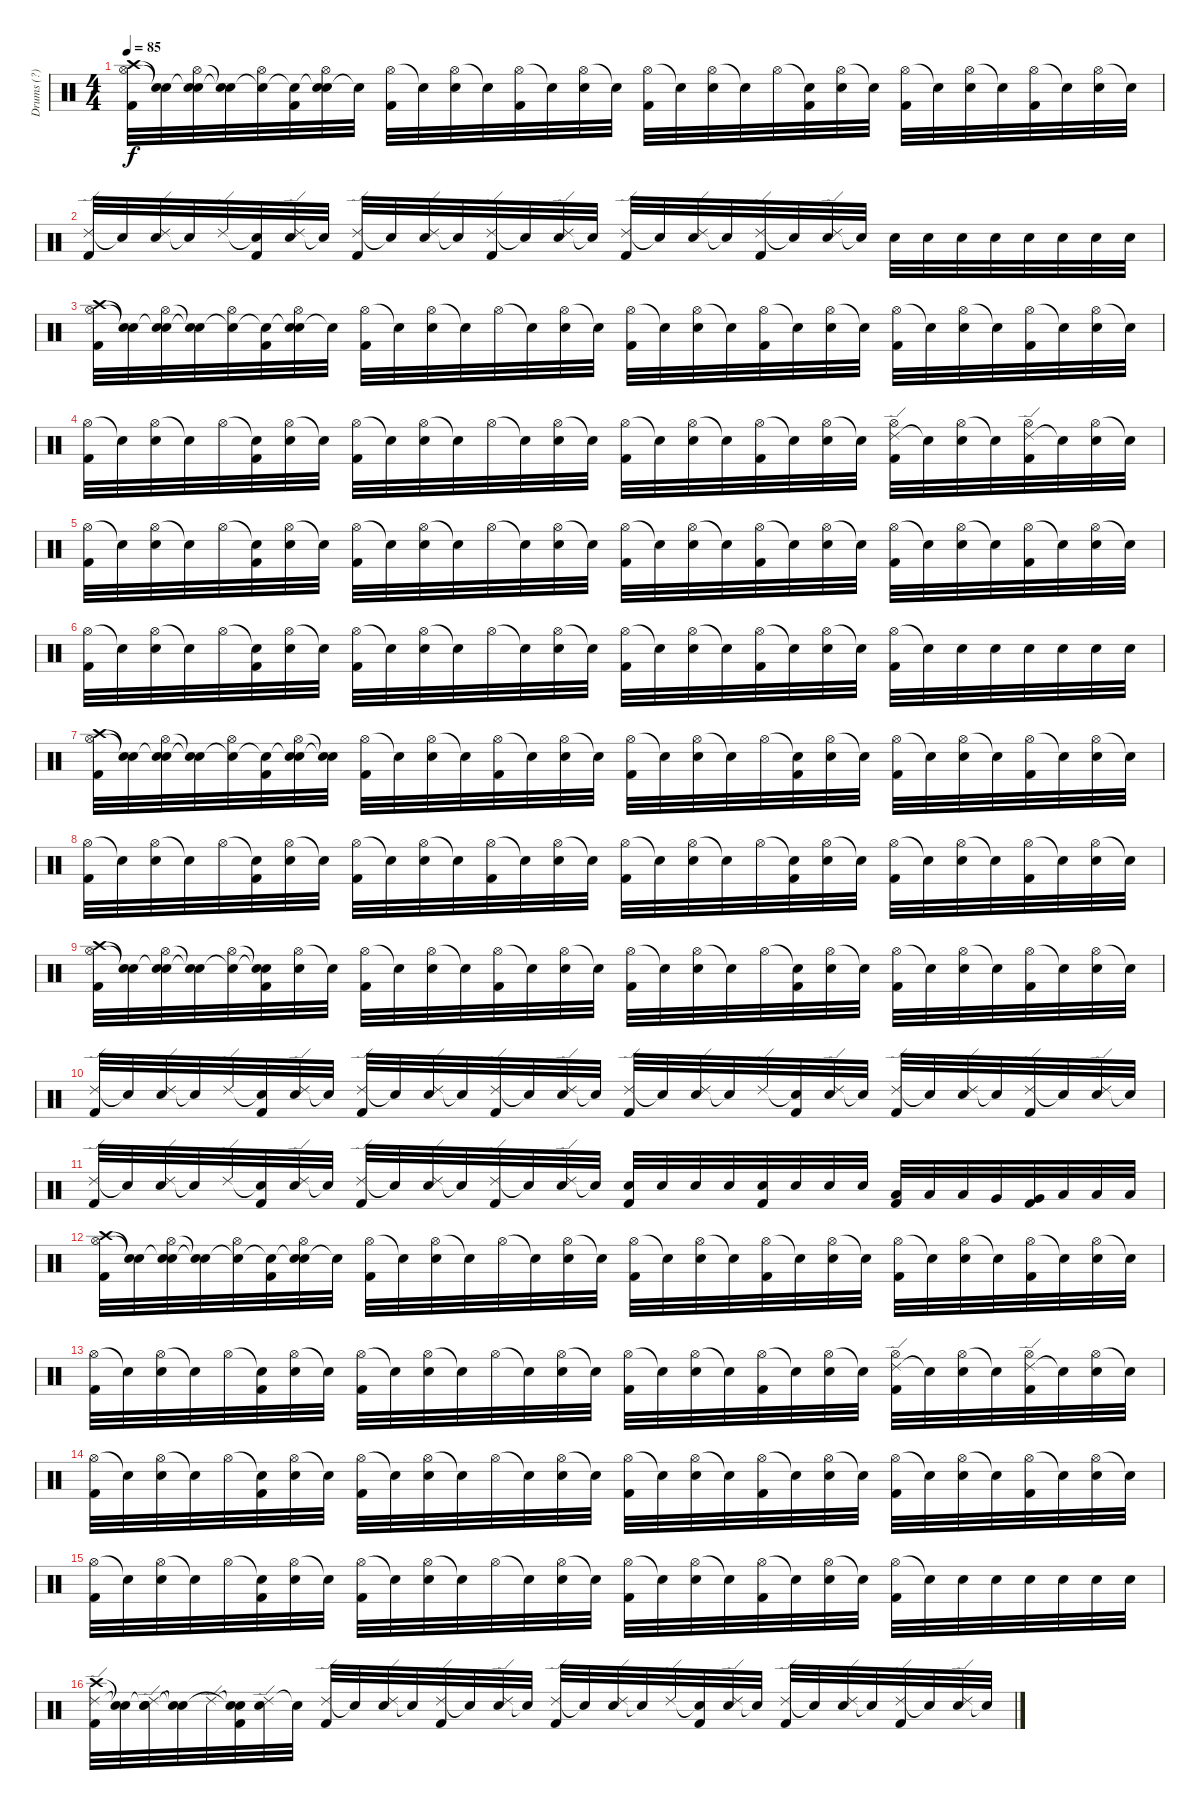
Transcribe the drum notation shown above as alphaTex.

\track ("Drums (?)" "Drums (?)") {instrument percussion}
\staff {score}
\articulation defaults
\ts (4 4)
\tempo 85
\clef neutral
\ks c
("Crash high (hit)" "Hi-Hat (open)" "Kick (hit) 2").32{dy f volume 14} ("Snare (hit)"{t} "Snare (hit)"{t}).32 ("Snare (hit)"{t} "Hi-Hat (open)" "Electric Snare (hit)").32 ("Snare (hit)"{t} "Snare (hit)"{t}).32 ("Snare (hit)"{t} "Hi-Hat (open)").32 ("Snare (hit)"{t} "Kick (hit) 2").32 ("Snare (hit)"{t} "Hi-Hat (open)" "Electric Snare (hit)").32 "Snare (hit)"{t}.32 ("Hi-Hat (open)" "Kick (hit) 2").32 "Snare (hit)"{t}.32 ("Hi-Hat (open)" "Electric Snare (hit)").32 "Snare (hit)"{t}.32 ("Hi-Hat (open)" "Kick (hit) 2").32 "Snare (hit)"{t}.32 ("Hi-Hat (open)" "Electric Snare (hit)").32 "Snare (hit)"{t}.32 ("Hi-Hat (open)" "Kick (hit) 2").32 "Snare (hit)"{t}.32 ("Hi-Hat (open)" "Electric Snare (hit)").32 "Snare (hit)"{t}.32 "Hi-Hat (open)".32 ("Snare (hit)"{t} "Kick (hit) 2").32 ("Hi-Hat (open)" "Electric Snare (hit)").32 "Snare (hit)"{t}.32 ("Hi-Hat (open)" "Kick (hit) 2").32 "Snare (hit)"{t}.32 ("Hi-Hat (open)" "Electric Snare (hit)").32 "Snare (hit)"{t}.32 ("Hi-Hat (open)" "Kick (hit) 2").32 "Snare (hit)"{t}.32 ("Hi-Hat (open)" "Electric Snare (hit)").32 "Snare (hit)"{t}.32 |
("Ride (edge) 2" "Kick (hit) 2").32 "Snare (hit)"{t}.32 ("Ride (edge) 2" "Electric Snare (hit)").32 "Snare (hit)"{t}.32 "Ride (edge) 2".32 ("Snare (hit)"{t} "Kick (hit) 2").32 ("Ride (edge) 2" "Electric Snare (hit)").32 "Snare (hit)"{t}.32 ("Ride (edge) 2" "Kick (hit) 2").32 "Snare (hit)"{t}.32 ("Ride (edge) 2" "Electric Snare (hit)").32 "Snare (hit)"{t}.32 ("Ride (edge) 2" "Kick (hit) 2").32 "Snare (hit)"{t}.32 ("Ride (edge) 2" "Electric Snare (hit)").32 "Snare (hit)"{t}.32 ("Ride (edge) 2" "Kick (hit) 2").32 "Snare (hit)"{t}.32 ("Ride (edge) 2" "Electric Snare (hit)").32 "Snare (hit)"{t}.32 ("Ride (edge) 2" "Kick (hit) 2").32 "Snare (hit)"{t}.32 ("Ride (edge) 2" "Electric Snare (hit)").32 "Snare (hit)"{t}.32 "Electric Snare (hit)".32 "Electric Snare (hit)".32 "Electric Snare (hit)".32 "Electric Snare (hit)".32 "Electric Snare (hit)".32 "Electric Snare (hit)".32 "Electric Snare (hit)".32 "Electric Snare (hit)".32 |
("Crash high (hit)" "Hi-Hat (open)" "Kick (hit) 2").32{volume 14} ("Snare (hit)"{t} "Snare (hit)"{t}).32 ("Snare (hit)"{t} "Hi-Hat (open)" "Electric Snare (hit)").32 ("Snare (hit)"{t} "Snare (hit)"{t}).32 ("Snare (hit)"{t} "Hi-Hat (open)").32 ("Snare (hit)"{t} "Kick (hit) 2").32 ("Snare (hit)"{t} "Hi-Hat (open)" "Electric Snare (hit)").32 "Snare (hit)"{t}.32 ("Hi-Hat (open)" "Kick (hit) 2").32 "Snare (hit)"{t}.32 ("Hi-Hat (open)" "Electric Snare (hit)").32 "Snare (hit)"{t}.32 "Hi-Hat (open)".32 "Snare (hit)"{t}.32 ("Hi-Hat (open)" "Electric Snare (hit)").32 "Snare (hit)"{t}.32 ("Hi-Hat (open)" "Kick (hit) 2").32 "Snare (hit)"{t}.32 ("Hi-Hat (open)" "Electric Snare (hit)").32 "Snare (hit)"{t}.32 ("Hi-Hat (open)" "Kick (hit) 2").32 "Snare (hit)"{t}.32 ("Hi-Hat (open)" "Electric Snare (hit)").32 "Snare (hit)"{t}.32 ("Hi-Hat (open)" "Kick (hit) 2").32 "Snare (hit)"{t}.32 ("Hi-Hat (open)" "Electric Snare (hit)").32 "Snare (hit)"{t}.32 ("Hi-Hat (open)" "Kick (hit) 2").32 "Snare (hit)"{t}.32 ("Hi-Hat (open)" "Electric Snare (hit)").32 "Snare (hit)"{t}.32 |
("Hi-Hat (open)" "Kick (hit) 2").32{volume 14} "Snare (hit)"{t}.32 ("Hi-Hat (open)" "Electric Snare (hit)").32 "Snare (hit)"{t}.32 "Hi-Hat (open)".32 ("Snare (hit)"{t} "Kick (hit) 2").32 ("Hi-Hat (open)" "Electric Snare (hit)").32 "Snare (hit)"{t}.32 ("Hi-Hat (open)" "Kick (hit) 2").32 "Snare (hit)"{t}.32 ("Hi-Hat (open)" "Electric Snare (hit)").32 "Snare (hit)"{t}.32 "Hi-Hat (open)".32 "Snare (hit)"{t}.32 ("Hi-Hat (open)" "Electric Snare (hit)").32 "Snare (hit)"{t}.32 ("Hi-Hat (open)" "Kick (hit) 2").32 "Snare (hit)"{t}.32 ("Hi-Hat (open)" "Electric Snare (hit)").32 "Snare (hit)"{t}.32 ("Hi-Hat (open)" "Kick (hit) 2").32 "Snare (hit)"{t}.32 ("Hi-Hat (open)" "Electric Snare (hit)").32 "Snare (hit)"{t}.32 ("Ride (edge) 2" "Hi-Hat (open)" "Kick (hit) 2").32 "Snare (hit)"{t}.32 ("Hi-Hat (open)" "Electric Snare (hit)").32 "Snare (hit)"{t}.32 ("Ride (edge) 2" "Hi-Hat (open)" "Kick (hit) 2").32 "Snare (hit)"{t}.32 ("Hi-Hat (open)" "Electric Snare (hit)").32 "Snare (hit)"{t}.32 |
("Hi-Hat (open)" "Kick (hit) 2").32{volume 14} "Snare (hit)"{t}.32 ("Hi-Hat (open)" "Electric Snare (hit)").32 "Snare (hit)"{t}.32 "Hi-Hat (open)".32 ("Snare (hit)"{t} "Kick (hit) 2").32 ("Hi-Hat (open)" "Electric Snare (hit)").32 "Snare (hit)"{t}.32 ("Hi-Hat (open)" "Kick (hit) 2").32 "Snare (hit)"{t}.32 ("Hi-Hat (open)" "Electric Snare (hit)").32 "Snare (hit)"{t}.32 "Hi-Hat (open)".32 "Snare (hit)"{t}.32 ("Hi-Hat (open)" "Electric Snare (hit)").32 "Snare (hit)"{t}.32 ("Hi-Hat (open)" "Kick (hit) 2").32 "Snare (hit)"{t}.32 ("Hi-Hat (open)" "Electric Snare (hit)").32 "Snare (hit)"{t}.32 ("Hi-Hat (open)" "Kick (hit) 2").32 "Snare (hit)"{t}.32 ("Hi-Hat (open)" "Electric Snare (hit)").32 "Snare (hit)"{t}.32 ("Hi-Hat (open)" "Kick (hit) 2").32 "Snare (hit)"{t}.32 ("Hi-Hat (open)" "Electric Snare (hit)").32 "Snare (hit)"{t}.32 ("Hi-Hat (open)" "Kick (hit) 2").32 "Snare (hit)"{t}.32 ("Hi-Hat (open)" "Electric Snare (hit)").32 "Snare (hit)"{t}.32 |
("Hi-Hat (open)" "Kick (hit) 2").32{volume 14} "Snare (hit)"{t}.32 ("Hi-Hat (open)" "Electric Snare (hit)").32 "Snare (hit)"{t}.32 "Hi-Hat (open)".32 ("Snare (hit)"{t} "Kick (hit) 2").32 ("Hi-Hat (open)" "Electric Snare (hit)").32 "Snare (hit)"{t}.32 ("Hi-Hat (open)" "Kick (hit) 2").32 "Snare (hit)"{t}.32 ("Hi-Hat (open)" "Electric Snare (hit)").32 "Snare (hit)"{t}.32 "Hi-Hat (open)".32 "Snare (hit)"{t}.32 ("Hi-Hat (open)" "Electric Snare (hit)").32 "Snare (hit)"{t}.32 ("Hi-Hat (open)" "Kick (hit) 2").32 "Snare (hit)"{t}.32 ("Hi-Hat (open)" "Electric Snare (hit)").32 "Snare (hit)"{t}.32 ("Hi-Hat (open)" "Kick (hit) 2").32 "Snare (hit)"{t}.32 ("Hi-Hat (open)" "Electric Snare (hit)").32 "Snare (hit)"{t}.32 ("Hi-Hat (open)" "Kick (hit) 2").32 "Snare (hit)"{t}.32 "Electric Snare (hit)".32 "Electric Snare (hit)".32 "Electric Snare (hit)".32 "Electric Snare (hit)".32 "Electric Snare (hit)".32 "Electric Snare (hit)".32 |
("Crash high (hit)" "Hi-Hat (open)" "Kick (hit) 2").32 ("Snare (hit)"{t} "Snare (hit)"{t}).32 ("Snare (hit)"{t} "Hi-Hat (open)" "Electric Snare (hit)").32 ("Snare (hit)"{t} "Snare (hit)"{t}).32 ("Snare (hit)"{t} "Hi-Hat (open)").32 ("Snare (hit)"{t} "Kick (hit) 2").32 ("Snare (hit)"{t} "Hi-Hat (open)" "Electric Snare (hit)").32 ("Snare (hit)"{t} "Snare (hit)"{t}).32 ("Hi-Hat (open)" "Kick (hit) 2").32 "Snare (hit)"{t}.32 ("Hi-Hat (open)" "Electric Snare (hit)").32 "Snare (hit)"{t}.32 ("Hi-Hat (open)" "Kick (hit) 2").32 "Snare (hit)"{t}.32 ("Hi-Hat (open)" "Electric Snare (hit)").32 "Snare (hit)"{t}.32 ("Hi-Hat (open)" "Kick (hit) 2").32 "Snare (hit)"{t}.32 ("Hi-Hat (open)" "Electric Snare (hit)").32 "Snare (hit)"{t}.32 "Hi-Hat (open)".32 ("Snare (hit)"{t} "Kick (hit) 2").32 ("Hi-Hat (open)" "Electric Snare (hit)").32 "Snare (hit)"{t}.32 ("Hi-Hat (open)" "Kick (hit) 2").32 "Snare (hit)"{t}.32 ("Hi-Hat (open)" "Electric Snare (hit)").32 "Snare (hit)"{t}.32 ("Hi-Hat (open)" "Kick (hit) 2").32 "Snare (hit)"{t}.32 ("Hi-Hat (open)" "Electric Snare (hit)").32 "Snare (hit)"{t}.32 |
("Hi-Hat (open)" "Kick (hit) 2").32 "Snare (hit)"{t}.32 ("Hi-Hat (open)" "Electric Snare (hit)").32 "Snare (hit)"{t}.32 "Hi-Hat (open)".32 ("Snare (hit)"{t} "Kick (hit) 2").32 ("Hi-Hat (open)" "Electric Snare (hit)").32 "Snare (hit)"{t}.32 ("Hi-Hat (open)" "Kick (hit) 2").32 "Snare (hit)"{t}.32 ("Hi-Hat (open)" "Electric Snare (hit)").32 "Snare (hit)"{t}.32 ("Hi-Hat (open)" "Kick (hit) 2").32 "Snare (hit)"{t}.32 ("Hi-Hat (open)" "Electric Snare (hit)").32 "Snare (hit)"{t}.32 ("Hi-Hat (open)" "Kick (hit) 2").32 "Snare (hit)"{t}.32 ("Hi-Hat (open)" "Electric Snare (hit)").32 "Snare (hit)"{t}.32 "Hi-Hat (open)".32 ("Snare (hit)"{t} "Kick (hit) 2").32 ("Hi-Hat (open)" "Electric Snare (hit)").32 "Snare (hit)"{t}.32 ("Hi-Hat (open)" "Kick (hit) 2").32 "Snare (hit)"{t}.32 ("Hi-Hat (open)" "Electric Snare (hit)").32 "Snare (hit)"{t}.32 ("Hi-Hat (open)" "Kick (hit) 2").32 "Snare (hit)"{t}.32 ("Hi-Hat (open)" "Electric Snare (hit)").32 "Snare (hit)"{t}.32 |
("Crash high (hit)" "Hi-Hat (open)" "Kick (hit) 2").32 ("Snare (hit)"{t} "Snare (hit)"{t}).32 ("Snare (hit)"{t} "Hi-Hat (open)" "Electric Snare (hit)").32 ("Snare (hit)"{t} "Snare (hit)"{t}).32 ("Snare (hit)"{t} "Hi-Hat (open)").32 ("Snare (hit)"{t} "Snare (hit)"{t} "Kick (hit) 2").32 ("Hi-Hat (open)" "Electric Snare (hit)").32 "Snare (hit)"{t}.32 ("Hi-Hat (open)" "Kick (hit) 2").32 "Snare (hit)"{t}.32 ("Hi-Hat (open)" "Electric Snare (hit)").32 "Snare (hit)"{t}.32 ("Hi-Hat (open)" "Kick (hit) 2").32 "Snare (hit)"{t}.32 ("Hi-Hat (open)" "Electric Snare (hit)").32 "Snare (hit)"{t}.32 ("Hi-Hat (open)" "Kick (hit) 2").32 "Snare (hit)"{t}.32 ("Hi-Hat (open)" "Electric Snare (hit)").32 "Snare (hit)"{t}.32 "Hi-Hat (open)".32 ("Snare (hit)"{t} "Kick (hit) 2").32 ("Hi-Hat (open)" "Electric Snare (hit)").32 "Snare (hit)"{t}.32 ("Hi-Hat (open)" "Kick (hit) 2").32 "Snare (hit)"{t}.32 ("Hi-Hat (open)" "Electric Snare (hit)").32 "Snare (hit)"{t}.32 ("Hi-Hat (open)" "Kick (hit) 2").32 "Snare (hit)"{t}.32 ("Hi-Hat (open)" "Electric Snare (hit)").32 "Snare (hit)"{t}.32 |
("Ride (edge) 2" "Kick (hit) 2").32 "Snare (hit)"{t}.32 ("Ride (edge) 2" "Electric Snare (hit)").32 "Snare (hit)"{t}.32 "Ride (edge) 2".32 ("Snare (hit)"{t} "Kick (hit) 2").32 ("Ride (edge) 2" "Electric Snare (hit)").32 "Snare (hit)"{t}.32 ("Ride (edge) 2" "Kick (hit) 2").32 "Snare (hit)"{t}.32 ("Ride (edge) 2" "Electric Snare (hit)").32 "Snare (hit)"{t}.32 ("Ride (edge) 2" "Kick (hit) 2").32 "Snare (hit)"{t}.32 ("Ride (edge) 2" "Electric Snare (hit)").32 "Snare (hit)"{t}.32 ("Ride (edge) 2" "Kick (hit) 2").32 "Snare (hit)"{t}.32 ("Ride (edge) 2" "Electric Snare (hit)").32 "Snare (hit)"{t}.32 "Ride (edge) 2".32 ("Snare (hit)"{t} "Kick (hit) 2").32 ("Ride (edge) 2" "Electric Snare (hit)").32 "Snare (hit)"{t}.32 ("Ride (edge) 2" "Kick (hit) 2").32 "Snare (hit)"{t}.32 ("Ride (edge) 2" "Electric Snare (hit)").32 "Snare (hit)"{t}.32 ("Ride (edge) 2" "Kick (hit) 2").32 "Snare (hit)"{t}.32 ("Ride (edge) 2" "Electric Snare (hit)").32 "Snare (hit)"{t}.32 |
("Ride (edge) 2" "Kick (hit) 2").32 "Snare (hit)"{t}.32 ("Ride (edge) 2" "Electric Snare (hit)").32 "Snare (hit)"{t}.32 "Ride (edge) 2".32 ("Snare (hit)"{t} "Kick (hit) 2").32 ("Ride (edge) 2" "Electric Snare (hit)").32 "Snare (hit)"{t}.32 ("Ride (edge) 2" "Kick (hit) 2").32 "Snare (hit)"{t}.32 ("Ride (edge) 2" "Electric Snare (hit)").32 "Snare (hit)"{t}.32 ("Ride (edge) 2" "Kick (hit) 2").32 "Snare (hit)"{t}.32 ("Ride (edge) 2" "Electric Snare (hit)").32 "Snare (hit)"{t}.32 ("Electric Snare (hit)" "Kick (hit) 2").32 "Electric Snare (hit)".32 "Electric Snare (hit)".32 "Electric Snare (hit)".32 ("Electric Snare (hit)" "Kick (hit) 2").32 "Electric Snare (hit)".32 "Electric Snare (hit)".32 "Electric Snare (hit)".32 ("Low Tom (hit)" "Kick (hit) 2").32 "Low Tom (hit)".32 "Low Tom (hit)".32 "Very Low Tom (hit)".32 ("Very Low Tom (hit)" "Kick (hit) 2").32 "Low Floor Tom (hit)".32 "Low Floor Tom (hit)".32 "Low Floor Tom (hit)".32 |
("Crash high (hit)" "Hi-Hat (open)" "Kick (hit) 2").32{volume 14} ("Snare (hit)"{t} "Snare (hit)"{t}).32 ("Snare (hit)"{t} "Hi-Hat (open)" "Electric Snare (hit)").32 ("Snare (hit)"{t} "Snare (hit)"{t}).32 ("Snare (hit)"{t} "Hi-Hat (open)").32 ("Snare (hit)"{t} "Kick (hit) 2").32 ("Snare (hit)"{t} "Hi-Hat (open)" "Electric Snare (hit)").32 "Snare (hit)"{t}.32 ("Hi-Hat (open)" "Kick (hit) 2").32 "Snare (hit)"{t}.32 ("Hi-Hat (open)" "Electric Snare (hit)").32 "Snare (hit)"{t}.32 "Hi-Hat (open)".32 "Snare (hit)"{t}.32 ("Hi-Hat (open)" "Electric Snare (hit)").32 "Snare (hit)"{t}.32 ("Hi-Hat (open)" "Kick (hit) 2").32 "Snare (hit)"{t}.32 ("Hi-Hat (open)" "Electric Snare (hit)").32 "Snare (hit)"{t}.32 ("Hi-Hat (open)" "Kick (hit) 2").32 "Snare (hit)"{t}.32 ("Hi-Hat (open)" "Electric Snare (hit)").32 "Snare (hit)"{t}.32 ("Hi-Hat (open)" "Kick (hit) 2").32 "Snare (hit)"{t}.32 ("Hi-Hat (open)" "Electric Snare (hit)").32 "Snare (hit)"{t}.32 ("Hi-Hat (open)" "Kick (hit) 2").32 "Snare (hit)"{t}.32 ("Hi-Hat (open)" "Electric Snare (hit)").32 "Snare (hit)"{t}.32 |
("Hi-Hat (open)" "Kick (hit) 2").32{volume 14} "Snare (hit)"{t}.32 ("Hi-Hat (open)" "Electric Snare (hit)").32 "Snare (hit)"{t}.32 "Hi-Hat (open)".32 ("Snare (hit)"{t} "Kick (hit) 2").32 ("Hi-Hat (open)" "Electric Snare (hit)").32 "Snare (hit)"{t}.32 ("Hi-Hat (open)" "Kick (hit) 2").32 "Snare (hit)"{t}.32 ("Hi-Hat (open)" "Electric Snare (hit)").32 "Snare (hit)"{t}.32 "Hi-Hat (open)".32 "Snare (hit)"{t}.32 ("Hi-Hat (open)" "Electric Snare (hit)").32 "Snare (hit)"{t}.32 ("Hi-Hat (open)" "Kick (hit) 2").32 "Snare (hit)"{t}.32 ("Hi-Hat (open)" "Electric Snare (hit)").32 "Snare (hit)"{t}.32 ("Hi-Hat (open)" "Kick (hit) 2").32 "Snare (hit)"{t}.32 ("Hi-Hat (open)" "Electric Snare (hit)").32 "Snare (hit)"{t}.32 ("Ride (edge) 2" "Hi-Hat (open)" "Kick (hit) 2").32 "Snare (hit)"{t}.32 ("Hi-Hat (open)" "Electric Snare (hit)").32 "Snare (hit)"{t}.32 ("Ride (edge) 2" "Hi-Hat (open)" "Kick (hit) 2").32 "Snare (hit)"{t}.32 ("Hi-Hat (open)" "Electric Snare (hit)").32 "Snare (hit)"{t}.32 |
("Hi-Hat (open)" "Kick (hit) 2").32{volume 14} "Snare (hit)"{t}.32 ("Hi-Hat (open)" "Electric Snare (hit)").32 "Snare (hit)"{t}.32 "Hi-Hat (open)".32 ("Snare (hit)"{t} "Kick (hit) 2").32 ("Hi-Hat (open)" "Electric Snare (hit)").32 "Snare (hit)"{t}.32 ("Hi-Hat (open)" "Kick (hit) 2").32 "Snare (hit)"{t}.32 ("Hi-Hat (open)" "Electric Snare (hit)").32 "Snare (hit)"{t}.32 "Hi-Hat (open)".32 "Snare (hit)"{t}.32 ("Hi-Hat (open)" "Electric Snare (hit)").32 "Snare (hit)"{t}.32 ("Hi-Hat (open)" "Kick (hit) 2").32 "Snare (hit)"{t}.32 ("Hi-Hat (open)" "Electric Snare (hit)").32 "Snare (hit)"{t}.32 ("Hi-Hat (open)" "Kick (hit) 2").32 "Snare (hit)"{t}.32 ("Hi-Hat (open)" "Electric Snare (hit)").32 "Snare (hit)"{t}.32 ("Hi-Hat (open)" "Kick (hit) 2").32 "Snare (hit)"{t}.32 ("Hi-Hat (open)" "Electric Snare (hit)").32 "Snare (hit)"{t}.32 ("Hi-Hat (open)" "Kick (hit) 2").32 "Snare (hit)"{t}.32 ("Hi-Hat (open)" "Electric Snare (hit)").32 "Snare (hit)"{t}.32 |
("Hi-Hat (open)" "Kick (hit) 2").32{volume 14} "Snare (hit)"{t}.32 ("Hi-Hat (open)" "Electric Snare (hit)").32 "Snare (hit)"{t}.32 "Hi-Hat (open)".32 ("Snare (hit)"{t} "Kick (hit) 2").32 ("Hi-Hat (open)" "Electric Snare (hit)").32 "Snare (hit)"{t}.32 ("Hi-Hat (open)" "Kick (hit) 2").32 "Snare (hit)"{t}.32 ("Hi-Hat (open)" "Electric Snare (hit)").32 "Snare (hit)"{t}.32 "Hi-Hat (open)".32 "Snare (hit)"{t}.32 ("Hi-Hat (open)" "Electric Snare (hit)").32 "Snare (hit)"{t}.32 ("Hi-Hat (open)" "Kick (hit) 2").32 "Snare (hit)"{t}.32 ("Hi-Hat (open)" "Electric Snare (hit)").32 "Snare (hit)"{t}.32 ("Hi-Hat (open)" "Kick (hit) 2").32 "Snare (hit)"{t}.32 ("Hi-Hat (open)" "Electric Snare (hit)").32 "Snare (hit)"{t}.32 ("Hi-Hat (open)" "Kick (hit) 2").32 "Snare (hit)"{t}.32 "Electric Snare (hit)".32 "Electric Snare (hit)".32 "Electric Snare (hit)".32 "Electric Snare (hit)".32 "Electric Snare (hit)".32 "Electric Snare (hit)".32 |
("Crash high (hit)" "Ride (edge) 2" "Kick (hit) 2").32{volume 14} ("Snare (hit)"{t} "Snare (hit)"{t}).32 ("Snare (hit)"{t} "Ride (edge) 2" "Electric Snare (hit)").32 ("Snare (hit)"{t} "Snare (hit)"{t}).32 "Ride (edge) 2".32 ("Snare (hit)"{t} "Snare (hit)"{t} "Kick (hit) 2").32 ("Ride (edge) 2" "Electric Snare (hit)").32 "Snare (hit)"{t}.32 ("Ride (edge) 2" "Kick (hit) 2").32 "Snare (hit)"{t}.32 ("Ride (edge) 2" "Electric Snare (hit)").32 "Snare (hit)"{t}.32 ("Ride (edge) 2" "Kick (hit) 2").32 "Snare (hit)"{t}.32 ("Ride (edge) 2" "Electric Snare (hit)").32 "Snare (hit)"{t}.32 ("Ride (edge) 2" "Kick (hit) 2").32 "Snare (hit)"{t}.32 ("Ride (edge) 2" "Electric Snare (hit)").32 "Snare (hit)"{t}.32 "Ride (edge) 2".32 ("Snare (hit)"{t} "Kick (hit) 2").32 ("Ride (edge) 2" "Electric Snare (hit)").32 "Snare (hit)"{t}.32 ("Ride (edge) 2" "Kick (hit) 2").32 "Snare (hit)"{t}.32 ("Ride (edge) 2" "Electric Snare (hit)").32 "Snare (hit)"{t}.32 ("Ride (edge) 2" "Kick (hit) 2").32 "Snare (hit)"{t}.32 ("Ride (edge) 2" "Electric Snare (hit)").32 "Snare (hit)"{t}.32
